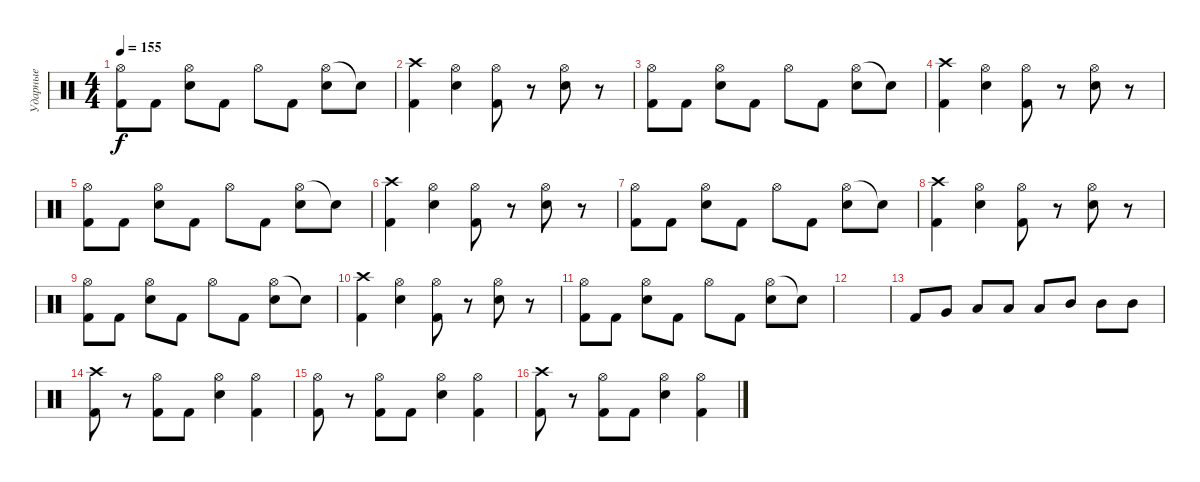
\track ("Ударные" "Ударные") {instrument percussion}
\staff {score}
\articulation defaults
\ts (4 4)
\tempo 155
\clef neutral
\ks c
("Hi-Hat (open)" "Kick (hit) 2").8{dy f} "Kick (hit) 2".8 ("Hi-Hat (open)" "Electric Snare (hit)").8 "Kick (hit) 2".8 "Hi-Hat (open)".8 "Kick (hit) 2".8 ("Hi-Hat (open)" "Electric Snare (hit)").8 "Snare (hit)"{t}.8 |
("Crash high (hit)" "Kick (hit) 2").4 ("Hi-Hat (open)" "Electric Snare (hit)").4 ("Hi-Hat (open)" "Kick (hit) 2").8 r.8 ("Hi-Hat (open)" "Electric Snare (hit)").8 r.8 |
("Hi-Hat (open)" "Kick (hit) 2").8 "Kick (hit) 2".8 ("Hi-Hat (open)" "Electric Snare (hit)").8 "Kick (hit) 2".8 "Hi-Hat (open)".8 "Kick (hit) 2".8 ("Hi-Hat (open)" "Electric Snare (hit)").8 "Snare (hit)"{t}.8 |
("Crash high (hit)" "Kick (hit) 2").4 ("Hi-Hat (open)" "Electric Snare (hit)").4 ("Hi-Hat (open)" "Kick (hit) 2").8 r.8 ("Hi-Hat (open)" "Electric Snare (hit)").8 r.8 |
("Hi-Hat (open)" "Kick (hit) 2").8 "Kick (hit) 2".8 ("Hi-Hat (open)" "Electric Snare (hit)").8 "Kick (hit) 2".8 "Hi-Hat (open)".8 "Kick (hit) 2".8 ("Hi-Hat (open)" "Electric Snare (hit)").8 "Snare (hit)"{t}.8 |
("Crash high (hit)" "Kick (hit) 2").4 ("Hi-Hat (open)" "Electric Snare (hit)").4 ("Hi-Hat (open)" "Kick (hit) 2").8 r.8 ("Hi-Hat (open)" "Electric Snare (hit)").8 r.8 |
("Hi-Hat (open)" "Kick (hit) 2").8 "Kick (hit) 2".8 ("Hi-Hat (open)" "Electric Snare (hit)").8 "Kick (hit) 2".8 "Hi-Hat (open)".8 "Kick (hit) 2".8 ("Hi-Hat (open)" "Electric Snare (hit)").8 "Snare (hit)"{t}.8 |
("Crash high (hit)" "Kick (hit) 2").4 ("Hi-Hat (open)" "Electric Snare (hit)").4 ("Hi-Hat (open)" "Kick (hit) 2").8 r.8 ("Hi-Hat (open)" "Electric Snare (hit)").8 r.8 |
("Hi-Hat (open)" "Kick (hit) 2").8 "Kick (hit) 2".8 ("Hi-Hat (open)" "Electric Snare (hit)").8 "Kick (hit) 2".8 "Hi-Hat (open)".8 "Kick (hit) 2".8 ("Hi-Hat (open)" "Electric Snare (hit)").8 "Snare (hit)"{t}.8 |
("Crash high (hit)" "Kick (hit) 2").4 ("Hi-Hat (open)" "Electric Snare (hit)").4 ("Hi-Hat (open)" "Kick (hit) 2").8 r.8 ("Hi-Hat (open)" "Electric Snare (hit)").8 r.8 |
("Hi-Hat (open)" "Kick (hit) 2").8 "Kick (hit) 2".8 ("Hi-Hat (open)" "Electric Snare (hit)").8 "Kick (hit) 2".8 "Hi-Hat (open)".8 "Kick (hit) 2".8 ("Hi-Hat (open)" "Electric Snare (hit)").8 "Snare (hit)"{t}.8 |
|
"Kick (hit) 2".8 "Very Low Tom (hit)".8 "Low Tom (hit)".8 "Low Tom (hit)".8 "Low Tom (hit)".8 "Mid Tom (hit)".8 "Mid Tom (hit)".8 "Mid Tom (hit)".8 |
("Crash high (hit)" "Kick (hit) 2").8 r.8 ("Hi-Hat (open)" "Kick (hit) 2").8 "Kick (hit) 2".8 ("Hi-Hat (open)" "Electric Snare (hit)").4 ("Hi-Hat (open)" "Kick (hit) 2").4 |
("Hi-Hat (open)" "Kick (hit) 2").8 r.8 ("Hi-Hat (open)" "Kick (hit) 2").8 "Kick (hit) 2".8 ("Hi-Hat (open)" "Electric Snare (hit)").4 ("Hi-Hat (open)" "Kick (hit) 2").4 |
("Crash high (hit)" "Kick (hit) 2").8 r.8 ("Hi-Hat (open)" "Kick (hit) 2").8 "Kick (hit) 2".8 ("Hi-Hat (open)" "Electric Snare (hit)").4 ("Hi-Hat (open)" "Kick (hit) 2").4
